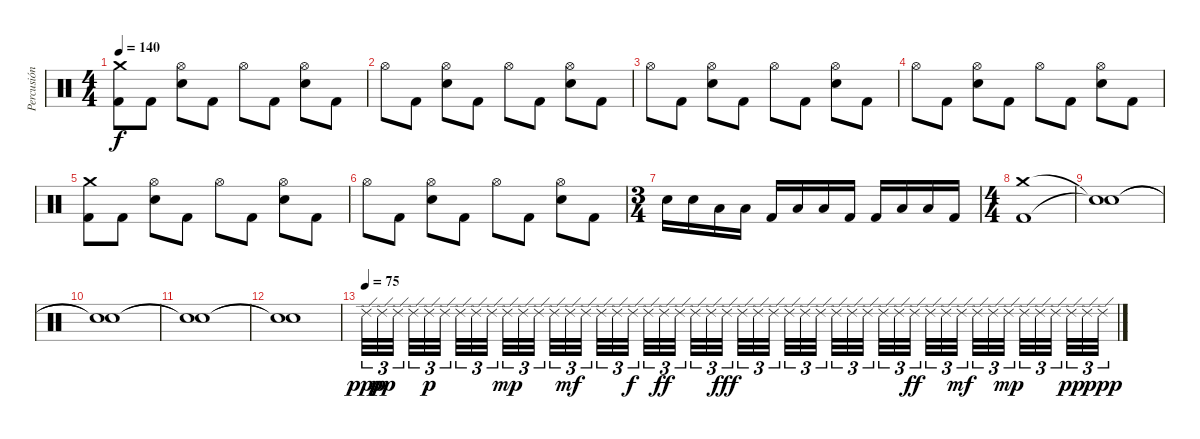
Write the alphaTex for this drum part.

\track ("Percusión" "Percusión") {instrument percussion}
\staff {score}
\articulation defaults
\ts (4 4)
\tempo 140
\clef neutral
\ks c
("Crash medium (hit)" "Kick (hit) 2").8{dy f} "Kick (hit) 2".8 ("Hi-Hat (open)" "Electric Snare (hit)").8 "Kick (hit) 2".8 "Hi-Hat (open)".8 "Kick (hit) 2".8 ("Hi-Hat (open)" "Electric Snare (hit)").8 "Kick (hit) 2".8 |
"Hi-Hat (open)".8 "Kick (hit) 2".8 ("Hi-Hat (open)" "Electric Snare (hit)").8 "Kick (hit) 2".8 "Hi-Hat (open)".8 "Kick (hit) 2".8 ("Hi-Hat (open)" "Electric Snare (hit)").8 "Kick (hit) 2".8 |
"Hi-Hat (open)".8 "Kick (hit) 2".8 ("Hi-Hat (open)" "Electric Snare (hit)").8 "Kick (hit) 2".8 "Hi-Hat (open)".8 "Kick (hit) 2".8 ("Hi-Hat (open)" "Electric Snare (hit)").8 "Kick (hit) 2".8 |
"Hi-Hat (open)".8 "Kick (hit) 2".8 ("Hi-Hat (open)" "Electric Snare (hit)").8 "Kick (hit) 2".8 "Hi-Hat (open)".8 "Kick (hit) 2".8 ("Hi-Hat (open)" "Electric Snare (hit)").8 "Kick (hit) 2".8 |
("Crash medium (hit)" "Kick (hit) 2").8 "Kick (hit) 2".8 ("Hi-Hat (open)" "Electric Snare (hit)").8 "Kick (hit) 2".8 "Hi-Hat (open)".8 "Kick (hit) 2".8 ("Hi-Hat (open)" "Electric Snare (hit)").8 "Kick (hit) 2".8 |
"Hi-Hat (open)".8 "Kick (hit) 2".8 ("Hi-Hat (open)" "Electric Snare (hit)").8 "Kick (hit) 2".8 "Hi-Hat (open)".8 "Kick (hit) 2".8 ("Hi-Hat (open)" "Electric Snare (hit)").8 "Kick (hit) 2".8 |
\ts (3 4)
"Electric Snare (hit)".16 "Electric Snare (hit)".16 "Low Tom (hit)".16 "Low Tom (hit)".16 "Kick (hit) 2".16 "Low Tom (hit)".16 "Low Tom (hit)".16 "Kick (hit) 2".16 "Kick (hit) 2".16 "Low Tom (hit)".16 "Low Tom (hit)".16 "Kick (hit) 2".16 |
\ts (4 4)
("Crash medium (hit)" "Kick (hit) 2").1 |
("Snare (hit)"{t} "Snare (hit)"{t}).1 |
("Snare (hit)"{t} "Snare (hit)"{t}).1 |
("Snare (hit)"{t} "Snare (hit)"{t}).1 |
("Snare (hit)"{t} "Snare (hit)"{t}).1 |
\tempo (75)
"Ride (edge) 2".32{tu (3 2) dy ppp} "Ride (edge) 2".32{tu (3 2) dy pp} "Ride (edge) 2".32{tu (3 2)} "Ride (edge) 2".32{tu (3 2)} "Ride (edge) 2".32{tu (3 2) dy p} "Ride (edge) 2".32{tu (3 2)} "Ride (edge) 2".32{tu (3 2)} "Ride (edge) 2".32{tu (3 2)} "Ride (edge) 2".32{tu (3 2)} "Ride (edge) 2".32{tu (3 2) dy mp} "Ride (edge) 2".32{tu (3 2)} "Ride (edge) 2".32{tu (3 2)} "Ride (edge) 2".32{tu (3 2)} "Ride (edge) 2".32{tu (3 2) dy mf} "Ride (edge) 2".32{tu (3 2)} "Ride (edge) 2".32{tu (3 2)} "Ride (edge) 2".32{tu (3 2)} "Ride (edge) 2".32{tu (3 2) dy f} "Ride (edge) 2".32{tu (3 2)} "Ride (edge) 2".32{tu (3 2) dy ff} "Ride (edge) 2".32{tu (3 2)} "Ride (edge) 2".32{tu (3 2)} "Ride (edge) 2".32{tu (3 2)} "Ride (edge) 2".32{tu (3 2) dy fff} "Ride (edge) 2".32{tu (3 2)} "Ride (edge) 2".32{tu (3 2)} "Ride (edge) 2".32{tu (3 2)} "Ride (edge) 2".32{tu (3 2)} "Ride (edge) 2".32{tu (3 2)} "Ride (edge) 2".32{tu (3 2)} "Ride (edge) 2".32{tu (3 2)} "Ride (edge) 2".32{tu (3 2)} "Ride (edge) 2".32{tu (3 2)} "Ride (edge) 2".32{tu (3 2)} "Ride (edge) 2".32{tu (3 2)} "Ride (edge) 2".32{tu (3 2) dy ff} "Ride (edge) 2".32{tu (3 2)} "Ride (edge) 2".32{tu (3 2)} "Ride (edge) 2".32{tu (3 2) dy mf} "Ride (edge) 2".32{tu (3 2)} "Ride (edge) 2".32{tu (3 2)} "Ride (edge) 2".32{tu (3 2) dy mp} "Ride (edge) 2".32{tu (3 2)} "Ride (edge) 2".32{tu (3 2)} "Ride (edge) 2".32{tu (3 2)} "Ride (edge) 2".32{tu (3 2) dy pp} "Ride (edge) 2".32{tu (3 2)} "Ride (edge) 2".32{tu (3 2) dy ppp}
